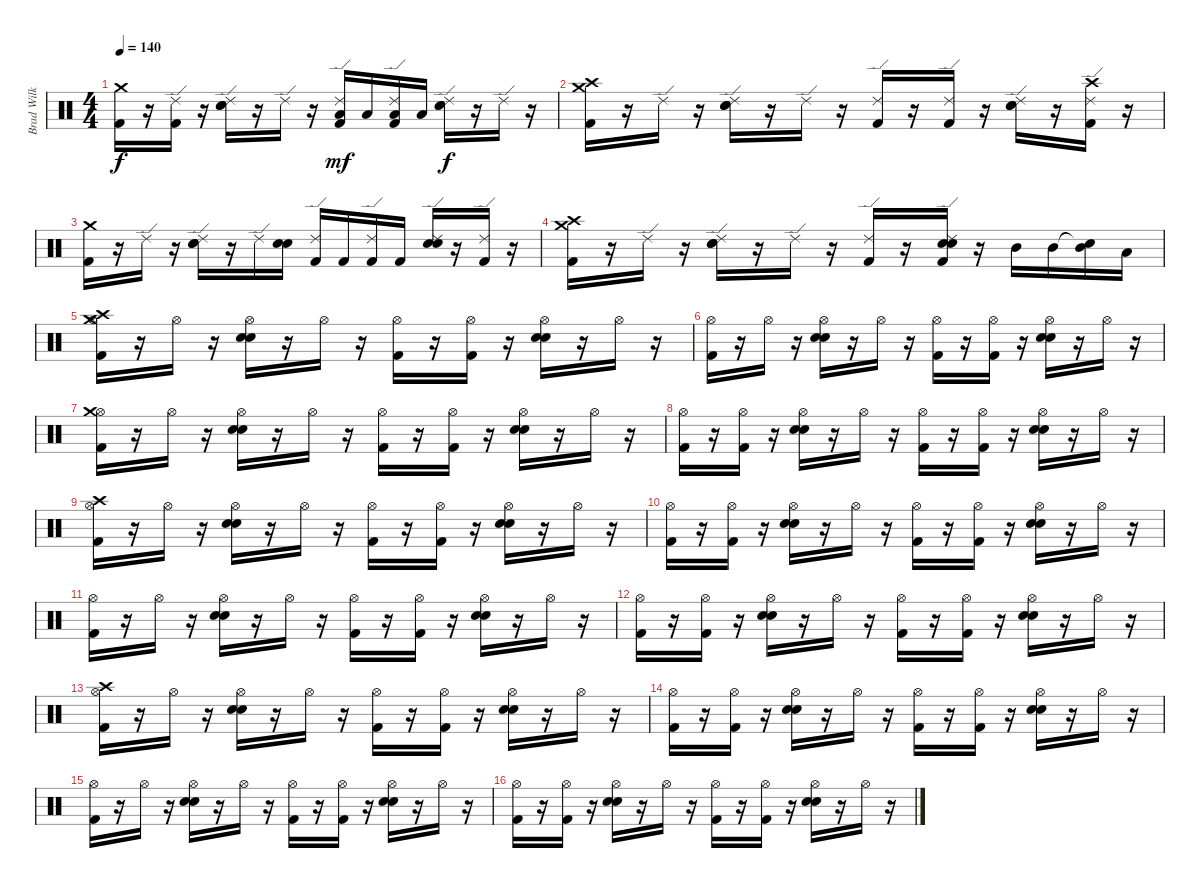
\track ("Brad Wilk" "Brad Wilk") {instrument percussion}
\staff {score}
\articulation defaults
\ts (4 4)
\tempo 140
\clef neutral
\ks c
("Crash medium (hit)" "Kick (hit) 2").16{dy f} r.16 ("Ride (edge) 2" "Kick (hit) 2").16 r.16 ("Ride (edge) 2" "Electric Snare (hit)" "Snare (hit) 2").16 r.16 "Ride (edge) 2".16 r.16 ("Ride (edge) 2" "Low Tom (hit)" "Kick (hit) 2").16{dy mf} "Low Tom (hit)".16 ("Ride (edge) 2" "Low Tom (hit)" "Kick (hit) 2").16 "Low Tom (hit)".16 ("Ride (edge) 2" "Electric Snare (hit)" "Snare (hit) 2").16{dy f} r.16 "Ride (edge) 2".16 r.16 |
("Crash medium (hit)" "Crash high (hit)" "Kick (hit) 2").16 r.16 "Ride (edge) 2".16 r.16 ("Ride (edge) 2" "Electric Snare (hit)" "Snare (hit) 2").16 r.16 "Ride (edge) 2".16 r.16 ("Ride (edge) 2" "Kick (hit) 2").16 r.16 ("Ride (edge) 2" "Kick (hit) 2").16 r.16 ("Ride (edge) 2" "Electric Snare (hit)" "Snare (hit) 2").16 r.16 ("Ride (edge) 2" "Crash high (hit)" "Kick (hit) 2").16 r.16 |
("Crash medium (hit)" "Kick (hit) 2").16 r.16 "Ride (edge) 2".16 r.16 ("Ride (edge) 2" "Electric Snare (hit)" "Snare (hit) 2").16 r.16 "Ride (edge) 2".16 ("Electric Snare (hit)" "Snare (hit) 2").16 ("Ride (edge) 2" "Kick (hit) 2").16 "Kick (hit) 2".16 ("Ride (edge) 2" "Kick (hit) 2").16 "Kick (hit) 2".16 ("Ride (edge) 2" "Electric Snare (hit)" "Snare (hit) 2").16 r.16 ("Ride (edge) 2" "Kick (hit) 2").16 r.16 |
("Crash medium (hit)" "Crash high (hit)" "Kick (hit) 2").16 r.16 "Ride (edge) 2".16 r.16 ("Ride (edge) 2" "Electric Snare (hit)" "Snare (hit) 2").16 r.16 "Ride (edge) 2".16 r.16 ("Ride (edge) 2" "Kick (hit) 2").16 r.16 ("Ride (edge) 2" "Snare (hit) 2" "Electric Snare (hit)" "Kick (hit) 2").16 r.16 "Mid Tom (hit)".16 "Mid Tom (hit)".16 ("Snare (hit)"{t} "Mid Tom (hit)").16 "Low Tom (hit)".16 |
("Hi-Hat (open)" "Crash medium (hit)" "Crash high (hit)" "Kick (hit) 2").16 r.16 "Hi-Hat (open)".16 r.16 ("Hi-Hat (open)" "Electric Snare (hit)" "Snare (hit) 2").16 r.16 "Hi-Hat (open)".16 r.16 ("Hi-Hat (open)" "Kick (hit) 2").16 r.16 ("Hi-Hat (open)" "Kick (hit) 2").16 r.16 ("Hi-Hat (open)" "Electric Snare (hit)" "Snare (hit) 2").16 r.16 "Hi-Hat (open)".16 r.16 |
("Hi-Hat (open)" "Kick (hit) 2").16 r.16 "Hi-Hat (open)".16 r.16 ("Hi-Hat (open)" "Electric Snare (hit)" "Snare (hit) 2").16 r.16 "Hi-Hat (open)".16 r.16 ("Hi-Hat (open)" "Kick (hit) 2").16 r.16 ("Hi-Hat (open)" "Kick (hit) 2").16 r.16 ("Hi-Hat (open)" "Electric Snare (hit)" "Snare (hit) 2").16 r.16 "Hi-Hat (open)".16 r.16 |
("Hi-Hat (open)" "Crash medium (hit)" "Kick (hit) 2").16 r.16 "Hi-Hat (open)".16 r.16 ("Hi-Hat (open)" "Electric Snare (hit)" "Snare (hit) 2").16 r.16 "Hi-Hat (open)".16 r.16 ("Hi-Hat (open)" "Kick (hit) 2").16 r.16 ("Hi-Hat (open)" "Kick (hit) 2").16 r.16 ("Hi-Hat (open)" "Electric Snare (hit)" "Snare (hit) 2").16 r.16 "Hi-Hat (open)".16 r.16 |
("Hi-Hat (open)" "Kick (hit) 2").16 r.16 ("Hi-Hat (open)" "Kick (hit) 2").16 r.16 ("Hi-Hat (open)" "Electric Snare (hit)" "Snare (hit) 2").16 r.16 "Hi-Hat (open)".16 r.16 ("Hi-Hat (open)" "Kick (hit) 2").16 r.16 ("Hi-Hat (open)" "Kick (hit) 2").16 r.16 ("Hi-Hat (open)" "Electric Snare (hit)" "Snare (hit) 2").16 r.16 "Hi-Hat (open)".16 r.16 |
("Hi-Hat (open)" "Crash high (hit)" "Kick (hit) 2").16 r.16 "Hi-Hat (open)".16 r.16 ("Hi-Hat (open)" "Electric Snare (hit)" "Snare (hit) 2").16 r.16 "Hi-Hat (open)".16 r.16 ("Hi-Hat (open)" "Kick (hit) 2").16 r.16 ("Hi-Hat (open)" "Kick (hit) 2").16 r.16 ("Hi-Hat (open)" "Electric Snare (hit)" "Snare (hit) 2").16 r.16 "Hi-Hat (open)".16 r.16 |
("Hi-Hat (open)" "Kick (hit) 2").16 r.16 ("Hi-Hat (open)" "Kick (hit) 2").16 r.16 ("Hi-Hat (open)" "Electric Snare (hit)" "Snare (hit) 2").16 r.16 "Hi-Hat (open)".16 r.16 ("Hi-Hat (open)" "Kick (hit) 2").16 r.16 ("Hi-Hat (open)" "Kick (hit) 2").16 r.16 ("Hi-Hat (open)" "Electric Snare (hit)" "Snare (hit) 2").16 r.16 "Hi-Hat (open)".16 r.16 |
("Hi-Hat (open)" "Kick (hit) 2").16 r.16 "Hi-Hat (open)".16 r.16 ("Hi-Hat (open)" "Electric Snare (hit)" "Snare (hit) 2").16 r.16 "Hi-Hat (open)".16 r.16 ("Hi-Hat (open)" "Kick (hit) 2").16 r.16 ("Hi-Hat (open)" "Kick (hit) 2").16 r.16 ("Hi-Hat (open)" "Electric Snare (hit)" "Snare (hit) 2").16 r.16 "Hi-Hat (open)".16 r.16 |
("Hi-Hat (open)" "Kick (hit) 2").16 r.16 ("Hi-Hat (open)" "Kick (hit) 2").16 r.16 ("Hi-Hat (open)" "Electric Snare (hit)" "Snare (hit) 2").16 r.16 "Hi-Hat (open)".16 r.16 ("Hi-Hat (open)" "Kick (hit) 2").16 r.16 ("Hi-Hat (open)" "Kick (hit) 2").16 r.16 ("Hi-Hat (open)" "Electric Snare (hit)" "Snare (hit) 2").16 r.16 "Hi-Hat (open)".16 r.16 |
("Hi-Hat (open)" "Crash high (hit)" "Kick (hit) 2").16 r.16 "Hi-Hat (open)".16 r.16 ("Hi-Hat (open)" "Electric Snare (hit)" "Snare (hit) 2").16 r.16 "Hi-Hat (open)".16 r.16 ("Hi-Hat (open)" "Kick (hit) 2").16 r.16 ("Hi-Hat (open)" "Kick (hit) 2").16 r.16 ("Hi-Hat (open)" "Electric Snare (hit)" "Snare (hit) 2").16 r.16 "Hi-Hat (open)".16 r.16 |
("Hi-Hat (open)" "Kick (hit) 2").16 r.16 ("Hi-Hat (open)" "Kick (hit) 2").16 r.16 ("Hi-Hat (open)" "Electric Snare (hit)" "Snare (hit) 2").16 r.16 "Hi-Hat (open)".16 r.16 ("Hi-Hat (open)" "Kick (hit) 2").16 r.16 ("Hi-Hat (open)" "Kick (hit) 2").16 r.16 ("Hi-Hat (open)" "Electric Snare (hit)" "Snare (hit) 2").16 r.16 "Hi-Hat (open)".16 r.16 |
("Hi-Hat (open)" "Kick (hit) 2").16 r.16 "Hi-Hat (open)".16 r.16 ("Hi-Hat (open)" "Electric Snare (hit)" "Snare (hit) 2").16 r.16 "Hi-Hat (open)".16 r.16 ("Hi-Hat (open)" "Kick (hit) 2").16 r.16 ("Hi-Hat (open)" "Kick (hit) 2").16 r.16 ("Hi-Hat (open)" "Electric Snare (hit)" "Snare (hit) 2").16 r.16 "Hi-Hat (open)".16 r.16 |
("Hi-Hat (open)" "Kick (hit) 2").16 r.16 ("Hi-Hat (open)" "Kick (hit) 2").16 r.16 ("Hi-Hat (open)" "Electric Snare (hit)" "Snare (hit) 2").16 r.16 "Hi-Hat (open)".16 r.16 ("Hi-Hat (open)" "Kick (hit) 2").16 r.16 ("Hi-Hat (open)" "Kick (hit) 2").16 r.16 ("Hi-Hat (open)" "Electric Snare (hit)" "Snare (hit) 2").16 r.16 "Hi-Hat (open)".16 r.16
